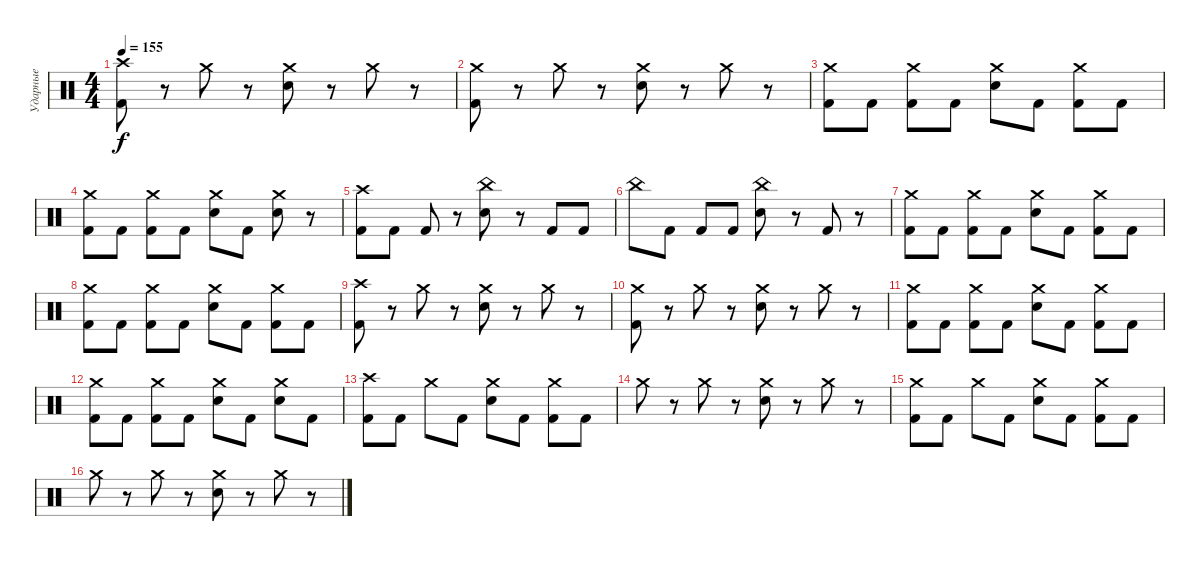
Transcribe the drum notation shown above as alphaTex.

\track ("Ударные" "Ударные") {instrument percussion}
\staff {score}
\articulation defaults
\ts (4 4)
\tempo 155
\clef neutral
\ks c
("Crash high (hit)" "Kick (hit) 2").8{dy f} r.8 "Crash medium (hit)".8 r.8 ("Crash medium (hit)" "Electric Snare (hit)").8 r.8 "Crash medium (hit)".8 r.8 |
("Crash medium (hit)" "Kick (hit) 2").8 r.8 "Crash medium (hit)".8 r.8 ("Crash medium (hit)" "Electric Snare (hit)").8 r.8 "Crash medium (hit)".8 r.8 |
("Crash medium (hit)" "Kick (hit) 2").8 "Kick (hit) 2".8 ("Crash medium (hit)" "Kick (hit) 2").8 "Kick (hit) 2".8 ("Crash medium (hit)" "Electric Snare (hit)").8 "Kick (hit) 2".8 ("Crash medium (hit)" "Kick (hit) 2").8 "Kick (hit) 2".8 |
("Crash medium (hit)" "Kick (hit) 2").8 "Kick (hit) 2".8 ("Crash medium (hit)" "Kick (hit) 2").8 "Kick (hit) 2".8 ("Crash medium (hit)" "Electric Snare (hit)").8 "Kick (hit) 2".8 ("Crash medium (hit)" "Electric Snare (hit)").8 r.8 |
("Crash high (hit)" "Kick (hit) 2").8 "Kick (hit) 2".8 "Kick (hit) 2".8 r.8 ("China (hit)" "Electric Snare (hit)").8 r.8 "Kick (hit) 2".8 "Kick (hit) 2".8 |
"China (hit)".8 "Kick (hit) 2".8 "Kick (hit) 2".8 "Kick (hit) 2".8 ("China (hit)" "Electric Snare (hit)").8 r.8 "Kick (hit) 2".8 r.8 |
("Crash medium (hit)" "Kick (hit) 2").8 "Kick (hit) 2".8 ("Crash medium (hit)" "Kick (hit) 2").8 "Kick (hit) 2".8 ("Crash medium (hit)" "Electric Snare (hit)").8 "Kick (hit) 2".8 ("Crash medium (hit)" "Kick (hit) 2").8 "Kick (hit) 2".8 |
("Crash medium (hit)" "Kick (hit) 2").8 "Kick (hit) 2".8 ("Crash medium (hit)" "Kick (hit) 2").8 "Kick (hit) 2".8 ("Crash medium (hit)" "Electric Snare (hit)").8 "Kick (hit) 2".8 ("Crash medium (hit)" "Kick (hit) 2").8 "Kick (hit) 2".8 |
("Crash high (hit)" "Kick (hit) 2").8 r.8 "Crash medium (hit)".8 r.8 ("Crash medium (hit)" "Electric Snare (hit)").8 r.8 "Crash medium (hit)".8 r.8 |
("Crash medium (hit)" "Kick (hit) 2").8 r.8 "Crash medium (hit)".8 r.8 ("Crash medium (hit)" "Electric Snare (hit)").8 r.8 "Crash medium (hit)".8 r.8 |
("Crash medium (hit)" "Kick (hit) 2").8 "Kick (hit) 2".8 ("Crash medium (hit)" "Kick (hit) 2").8 "Kick (hit) 2".8 ("Crash medium (hit)" "Electric Snare (hit)").8 "Kick (hit) 2".8 ("Crash medium (hit)" "Kick (hit) 2").8 "Kick (hit) 2".8 |
("Crash medium (hit)" "Kick (hit) 2").8 "Kick (hit) 2".8 ("Crash medium (hit)" "Kick (hit) 2").8 "Kick (hit) 2".8 ("Crash medium (hit)" "Electric Snare (hit)").8 "Kick (hit) 2".8 ("Crash medium (hit)" "Electric Snare (hit)").8 "Kick (hit) 2".8 |
("Crash high (hit)" "Kick (hit) 2").8 "Kick (hit) 2".8 "Crash medium (hit)".8 "Kick (hit) 2".8 ("Crash medium (hit)" "Electric Snare (hit)").8 "Kick (hit) 2".8 ("Crash medium (hit)" "Kick (hit) 2").8 "Kick (hit) 2".8 |
"Crash medium (hit)".8 r.8 "Crash medium (hit)".8 r.8 ("Crash medium (hit)" "Electric Snare (hit)").8 r.8 "Crash medium (hit)".8 r.8 |
("Crash medium (hit)" "Kick (hit) 2").8 "Kick (hit) 2".8 "Crash medium (hit)".8 "Kick (hit) 2".8 ("Crash medium (hit)" "Electric Snare (hit)").8 "Kick (hit) 2".8 ("Crash medium (hit)" "Kick (hit) 2").8 "Kick (hit) 2".8 |
"Crash medium (hit)".8 r.8 "Crash medium (hit)".8 r.8 ("Crash medium (hit)" "Electric Snare (hit)").8 r.8 "Crash medium (hit)".8 r.8
